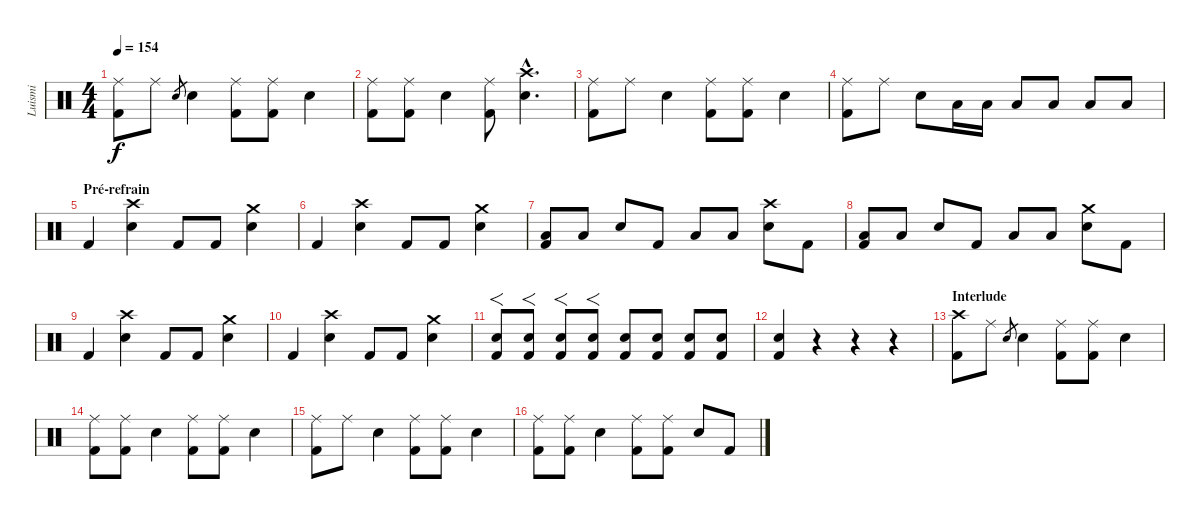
\track ("Luismi" "Luismi") {instrument percussion}
\staff {score}
\articulation defaults
\ts (4 4)
\tempo 154
\clef neutral
\ks c
("Ride (middle)" "Kick (hit) 2").8{dy f} "Ride (middle)".8 "Electric Snare (hit)".8{gr} "Electric Snare (hit)".4 ("Ride (middle)" "Kick (hit) 2").8 ("Ride (middle)" "Kick (hit) 2").8 "Electric Snare (hit)".4 |
("Ride (middle)" "Kick (hit) 2").8 ("Ride (middle)" "Kick (hit) 2").8 "Electric Snare (hit)".4 ("Ride (middle)" "Kick (hit) 2").8 ("Crash high (hit)"{hac} "Electric Snare (hit)"{hac}).4{d} |
("Ride (middle)" "Kick (hit) 2").8 "Ride (middle)".8 "Electric Snare (hit)".4 ("Ride (middle)" "Kick (hit) 2").8 ("Ride (middle)" "Kick (hit) 2").8 "Electric Snare (hit)".4 |
("Ride (middle)" "Kick (hit) 2").8 "Ride (middle)".8 "Electric Snare (hit)".8 "Low Tom (hit)".16 "Low Tom (hit)".16 "Low Floor Tom (hit)".8 "Low Floor Tom (hit)".8 "Low Floor Tom (hit)".8 "Low Floor Tom (hit)".8 |
\section ("" "Pré-refrain")
"Kick (hit) 2".4 ("Crash high (hit)" "Electric Snare (hit)").4 "Kick (hit) 2".8 "Kick (hit) 2".8 ("Crash medium (hit)" "Electric Snare (hit)").4 |
"Kick (hit) 2".4 ("Crash high (hit)" "Electric Snare (hit)").4 "Kick (hit) 2".8 "Kick (hit) 2".8 ("Crash medium (hit)" "Electric Snare (hit)").4 |
("Low Floor Tom (hit)" "Kick (hit) 2").8 "Low Floor Tom (hit)".8 "Electric Snare (hit)".8 "Kick (hit) 2".8 "Low Floor Tom (hit)".8 "Low Floor Tom (hit)".8 ("Crash high (hit)" "Electric Snare (hit)").8 "Kick (hit) 2".8 |
("Low Floor Tom (hit)" "Kick (hit) 2").8 "Low Floor Tom (hit)".8 "Electric Snare (hit)".8 "Kick (hit) 2".8 "Low Floor Tom (hit)".8 "Low Floor Tom (hit)".8 ("Crash medium (hit)" "Electric Snare (hit)").8 "Kick (hit) 2".8 |
"Kick (hit) 2".4 ("Crash high (hit)" "Electric Snare (hit)").4 "Kick (hit) 2".8 "Kick (hit) 2".8 ("Crash medium (hit)" "Electric Snare (hit)").4 |
"Kick (hit) 2".4 ("Crash high (hit)" "Electric Snare (hit)").4 "Kick (hit) 2".8 "Kick (hit) 2".8 ("Crash medium (hit)" "Electric Snare (hit)").4 |
("Electric Snare (hit)" "Kick (hit) 2").8{f} ("Electric Snare (hit)" "Kick (hit) 2").8{f} ("Electric Snare (hit)" "Kick (hit) 2").8{f} ("Electric Snare (hit)" "Kick (hit) 2").8{f} ("Electric Snare (hit)" "Kick (hit) 2").8 ("Electric Snare (hit)" "Kick (hit) 2").8 ("Electric Snare (hit)" "Kick (hit) 2").8 ("Electric Snare (hit)" "Kick (hit) 2").8 |
("Electric Snare (hit)" "Kick (hit) 2").4 r.4 r.4 r.4 |
\section ("" "Interlude")
("Crash high (hit)" "Kick (hit) 2").8 "Ride (middle)".8 "Electric Snare (hit)".8{gr} "Electric Snare (hit)".4 ("Ride (middle)" "Kick (hit) 2").8 ("Ride (middle)" "Kick (hit) 2").8 "Electric Snare (hit)".4 |
("Ride (middle)" "Kick (hit) 2").8 ("Ride (middle)" "Kick (hit) 2").8 "Electric Snare (hit)".4 ("Ride (middle)" "Kick (hit) 2").8 ("Ride (middle)" "Kick (hit) 2").8 "Electric Snare (hit)".4 |
("Ride (middle)" "Kick (hit) 2").8 "Ride (middle)".8 "Electric Snare (hit)".4 ("Ride (middle)" "Kick (hit) 2").8 ("Ride (middle)" "Kick (hit) 2").8 "Electric Snare (hit)".4 |
("Ride (middle)" "Kick (hit) 2").8 ("Ride (middle)" "Kick (hit) 2").8 "Electric Snare (hit)".4 ("Ride (middle)" "Kick (hit) 2").8 ("Ride (middle)" "Kick (hit) 2").8 "Electric Snare (hit)".8 "Kick (hit) 2".8
